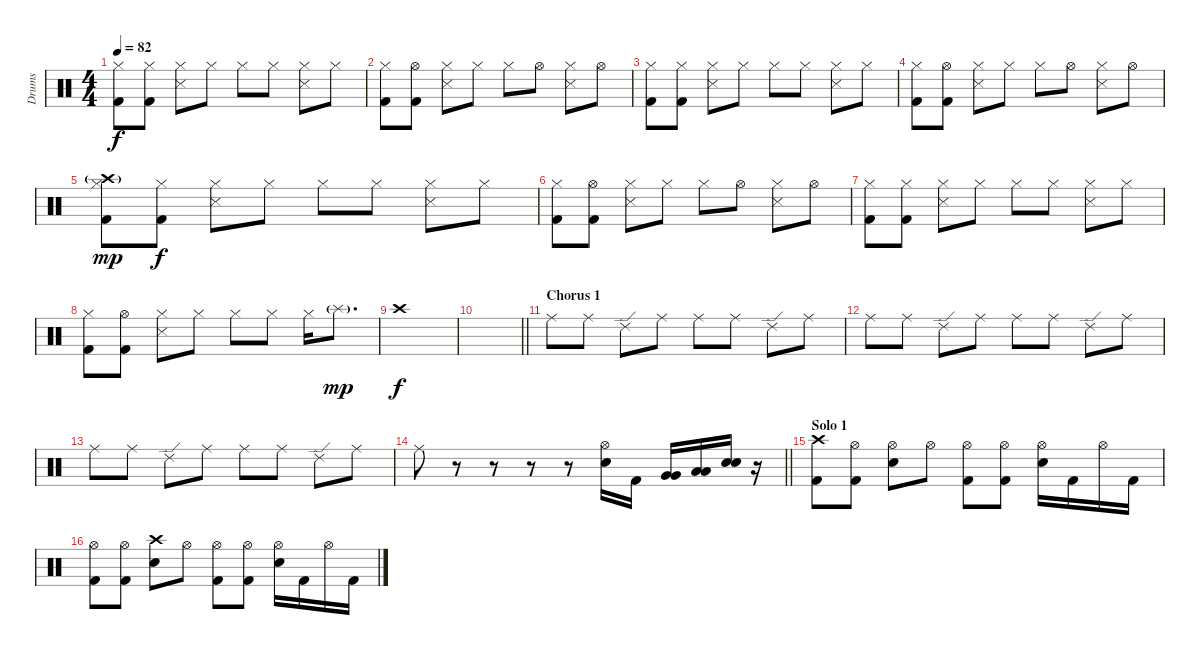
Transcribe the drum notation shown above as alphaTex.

\track ("Drums" "Drums") {instrument percussion}
\staff {score}
\articulation defaults
\ts (4 4)
\tempo 82
\clef neutral
\ks c
("Hi-Hat (closed)" "Kick (hit) 2").8{dy f} ("Hi-Hat (closed)" "Kick (hit) 2").8 ("Hi-Hat (closed)" "Snare (side stick) 3").8 "Hi-Hat (closed)".8 "Hi-Hat (closed)".8 "Hi-Hat (closed)".8 ("Hi-Hat (closed)" "Snare (side stick) 3").8 "Hi-Hat (closed)".8 |
("Hi-Hat (closed)" "Kick (hit) 2").8 ("Hi-Hat (open)" "Kick (hit) 2").8 ("Hi-Hat (closed)" "Snare (side stick) 3").8 "Hi-Hat (closed)".8 "Hi-Hat (closed)".8 "Hi-Hat (open)".8 ("Hi-Hat (closed)" "Snare (side stick) 3").8 "Hi-Hat (open)".8 |
("Hi-Hat (closed)" "Kick (hit) 2").8 ("Hi-Hat (closed)" "Kick (hit) 2").8 ("Hi-Hat (closed)" "Snare (side stick) 3").8 "Hi-Hat (closed)".8 "Hi-Hat (closed)".8 "Hi-Hat (closed)".8 ("Hi-Hat (closed)" "Snare (side stick) 3").8 "Hi-Hat (closed)".8 |
("Hi-Hat (closed)" "Kick (hit) 2").8 ("Hi-Hat (open)" "Kick (hit) 2").8 ("Hi-Hat (closed)" "Snare (side stick) 3").8 "Hi-Hat (closed)".8 "Hi-Hat (closed)".8 "Hi-Hat (open)".8 ("Hi-Hat (closed)" "Snare (side stick) 3").8 "Hi-Hat (open)".8 |
("Hi-Hat (closed)" "Crash high (hit)"{g} "Kick (hit) 2").8{dy mp} ("Hi-Hat (closed)" "Kick (hit) 2").8{dy f} ("Hi-Hat (closed)" "Snare (side stick) 3").8 "Hi-Hat (closed)".8 "Hi-Hat (closed)".8 "Hi-Hat (closed)".8 ("Hi-Hat (closed)" "Snare (side stick) 3").8 "Hi-Hat (closed)".8 |
("Hi-Hat (closed)" "Kick (hit) 2").8 ("Hi-Hat (open)" "Kick (hit) 2").8 ("Hi-Hat (closed)" "Snare (side stick) 3").8 "Hi-Hat (closed)".8 "Hi-Hat (closed)".8 "Hi-Hat (open)".8 ("Hi-Hat (closed)" "Snare (side stick) 3").8 "Hi-Hat (open)".8 |
("Hi-Hat (closed)" "Kick (hit) 2").8 ("Hi-Hat (closed)" "Kick (hit) 2").8 ("Hi-Hat (closed)" "Snare (side stick) 3").8 "Hi-Hat (closed)".8 "Hi-Hat (closed)".8 "Hi-Hat (closed)".8 ("Hi-Hat (closed)" "Snare (side stick) 3").8 "Hi-Hat (closed)".8 |
("Hi-Hat (closed)" "Kick (hit) 2").8 ("Hi-Hat (open)" "Kick (hit) 2").8 ("Hi-Hat (closed)" "Snare (side stick) 3").8 "Hi-Hat (closed)".8 "Hi-Hat (closed)".8 "Hi-Hat (closed)".8 "Hi-Hat (closed)".16 "Splash (hit)"{g}.8{d dy mp} |
"Crash high (hit)".1{dy f} |
\barLineRight lightlight
|
\section ("" "Chorus 1")
"Ride (middle)".8 "Ride (middle)".8 "Ride (edge) 2".8 "Ride (middle)".8 "Ride (middle)".8 "Ride (middle)".8 "Ride (edge) 2".8 "Ride (middle)".8 |
"Ride (middle)".8 "Ride (middle)".8 "Ride (edge) 2".8 "Ride (middle)".8 "Ride (middle)".8 "Ride (middle)".8 "Ride (edge) 2".8 "Ride (middle)".8 |
"Ride (middle)".8 "Ride (middle)".8 "Ride (edge) 2".8 "Ride (middle)".8 "Ride (middle)".8 "Ride (middle)".8 "Ride (edge) 2".8 "Ride (middle)".8 |
\barLineRight lightlight "Ride (middle)".8
r.8 r.8 r.8 r.8 ("Hi-Hat (open)" "Electric Snare (hit)").16 "Kick (hit) 2".16 ("Very Low Tom (hit)" "Very Low Tom (hit)").16 ("Low Floor Tom (hit)" "Low Floor Tom (hit)").16 ("Electric Snare (hit)" "Electric Snare (hit)").16 r.16 |
\section ("" "Solo 1")
("Kick (hit) 2" "Crash high (hit)").8 ("Kick (hit) 2" "Hi-Hat (open)").8 ("Electric Snare (hit)" "Hi-Hat (open)").8 "Hi-Hat (open)".8 ("Kick (hit) 2" "Hi-Hat (open)").8 ("Kick (hit) 2" "Hi-Hat (open)").8 ("Electric Snare (hit)" "Hi-Hat (open)").16 "Kick (hit) 2".16 "Hi-Hat (open)".16 "Kick (hit) 2".16 |
("Kick (hit) 2" "Hi-Hat (open)").8 ("Kick (hit) 2" "Hi-Hat (open)").8 ("Electric Snare (hit)" "Crash high (hit)").8 "Hi-Hat (open)".8 ("Kick (hit) 2" "Hi-Hat (open)").8 ("Kick (hit) 2" "Hi-Hat (open)").8 ("Electric Snare (hit)" "Hi-Hat (open)").16 "Kick (hit) 2".16 "Hi-Hat (open)".16 "Kick (hit) 2".16
